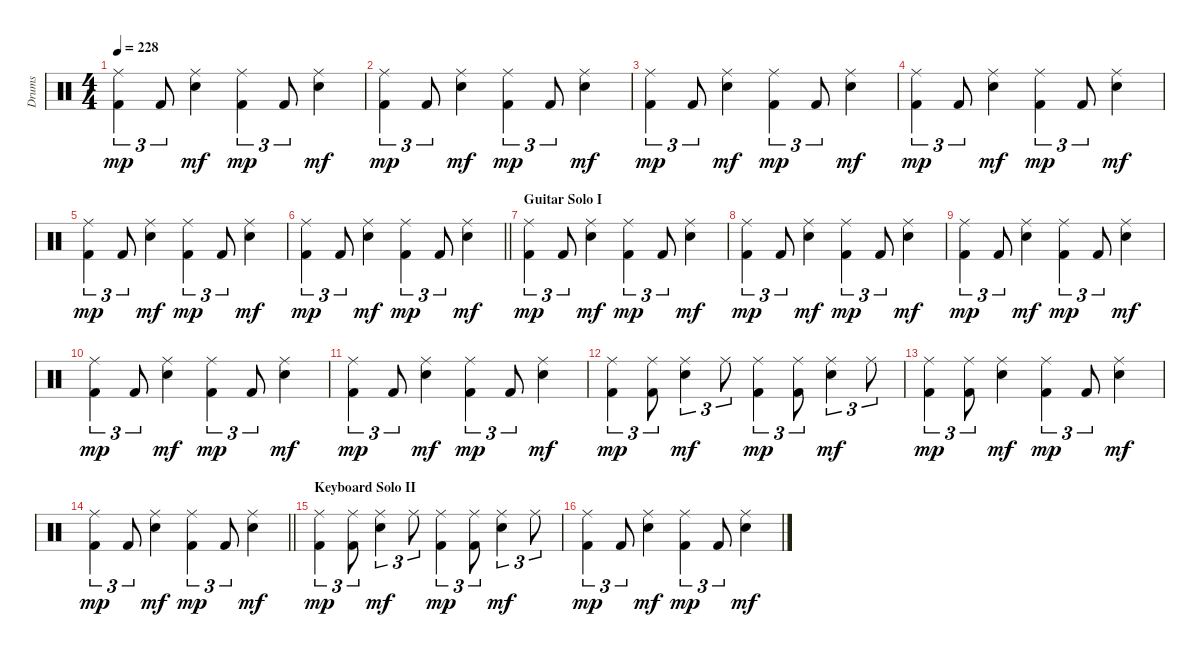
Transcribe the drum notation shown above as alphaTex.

\track ("Drums" "Drums") {instrument percussion}
\staff {score}
\articulation defaults
\ts (4 4)
\tempo 228
\clef neutral
\ks c
("Ride (middle)" "Kick (hit) 2").4{tu (3 2) dy mp} "Kick (hit) 2".8{tu (3 2)} ("Ride (middle)" "Electric Snare (hit)").4{dy mf} ("Ride (middle)" "Kick (hit) 2").4{tu (3 2) dy mp} "Kick (hit) 2".8{tu (3 2)} ("Ride (middle)" "Electric Snare (hit)").4{dy mf} |
("Ride (middle)" "Kick (hit) 2").4{tu (3 2) dy mp} "Kick (hit) 2".8{tu (3 2)} ("Ride (middle)" "Electric Snare (hit)").4{dy mf} ("Ride (middle)" "Kick (hit) 2").4{tu (3 2) dy mp} "Kick (hit) 2".8{tu (3 2)} ("Ride (middle)" "Electric Snare (hit)").4{dy mf} |
("Ride (middle)" "Kick (hit) 2").4{tu (3 2) dy mp} "Kick (hit) 2".8{tu (3 2)} ("Ride (middle)" "Electric Snare (hit)").4{dy mf} ("Ride (middle)" "Kick (hit) 2").4{tu (3 2) dy mp} "Kick (hit) 2".8{tu (3 2)} ("Ride (middle)" "Electric Snare (hit)").4{dy mf} |
("Ride (middle)" "Kick (hit) 2").4{tu (3 2) dy mp} "Kick (hit) 2".8{tu (3 2)} ("Ride (middle)" "Electric Snare (hit)").4{dy mf} ("Ride (middle)" "Kick (hit) 2").4{tu (3 2) dy mp} "Kick (hit) 2".8{tu (3 2)} ("Ride (middle)" "Electric Snare (hit)").4{dy mf} |
("Ride (middle)" "Kick (hit) 2").4{tu (3 2) dy mp} "Kick (hit) 2".8{tu (3 2)} ("Ride (middle)" "Electric Snare (hit)").4{dy mf} ("Ride (middle)" "Kick (hit) 2").4{tu (3 2) dy mp} "Kick (hit) 2".8{tu (3 2)} ("Ride (middle)" "Electric Snare (hit)").4{dy mf} |
\barLineRight lightlight
("Ride (middle)" "Kick (hit) 2").4{tu (3 2) dy mp} "Kick (hit) 2".8{tu (3 2)} ("Ride (middle)" "Electric Snare (hit)").4{dy mf} ("Ride (middle)" "Kick (hit) 2").4{tu (3 2) dy mp} "Kick (hit) 2".8{tu (3 2)} ("Ride (middle)" "Electric Snare (hit)").4{dy mf} |
\section ("" "Guitar Solo I")
("Ride (middle)" "Kick (hit) 2").4{tu (3 2) dy mp} "Kick (hit) 2".8{tu (3 2)} ("Ride (middle)" "Electric Snare (hit)").4{dy mf} ("Ride (middle)" "Kick (hit) 2").4{tu (3 2) dy mp} "Kick (hit) 2".8{tu (3 2)} ("Ride (middle)" "Electric Snare (hit)").4{dy mf} |
("Ride (middle)" "Kick (hit) 2").4{tu (3 2) dy mp} "Kick (hit) 2".8{tu (3 2)} ("Ride (middle)" "Electric Snare (hit)").4{dy mf} ("Ride (middle)" "Kick (hit) 2").4{tu (3 2) dy mp} "Kick (hit) 2".8{tu (3 2)} ("Ride (middle)" "Electric Snare (hit)").4{dy mf} |
("Ride (middle)" "Kick (hit) 2").4{tu (3 2) dy mp} "Kick (hit) 2".8{tu (3 2)} ("Ride (middle)" "Electric Snare (hit)").4{dy mf} ("Ride (middle)" "Kick (hit) 2").4{tu (3 2) dy mp} "Kick (hit) 2".8{tu (3 2)} ("Ride (middle)" "Electric Snare (hit)").4{dy mf} |
("Ride (middle)" "Kick (hit) 2").4{tu (3 2) dy mp} "Kick (hit) 2".8{tu (3 2)} ("Ride (middle)" "Electric Snare (hit)").4{dy mf} ("Ride (middle)" "Kick (hit) 2").4{tu (3 2) dy mp} "Kick (hit) 2".8{tu (3 2)} ("Ride (middle)" "Electric Snare (hit)").4{dy mf} |
("Ride (middle)" "Kick (hit) 2").4{tu (3 2) dy mp} "Kick (hit) 2".8{tu (3 2)} ("Ride (middle)" "Electric Snare (hit)").4{dy mf} ("Ride (middle)" "Kick (hit) 2").4{tu (3 2) dy mp} "Kick (hit) 2".8{tu (3 2)} ("Ride (middle)" "Electric Snare (hit)").4{dy mf} |
("Ride (middle)" "Kick (hit) 2").4{tu (3 2) dy mp} ("Ride (middle)" "Kick (hit) 2").8{tu (3 2)} ("Ride (middle)" "Electric Snare (hit)").4{tu (3 2) dy mf} "Ride (middle)".8{tu (3 2)} ("Ride (middle)" "Kick (hit) 2").4{tu (3 2) dy mp} ("Ride (middle)" "Kick (hit) 2").8{tu (3 2)} ("Ride (middle)" "Electric Snare (hit)").4{tu (3 2) dy mf} "Ride (middle)".8{tu (3 2)} |
("Ride (middle)" "Kick (hit) 2").4{tu (3 2) dy mp} ("Ride (middle)" "Kick (hit) 2").8{tu (3 2)} ("Ride (middle)" "Electric Snare (hit)").4{dy mf} ("Ride (middle)" "Kick (hit) 2").4{tu (3 2) dy mp} "Kick (hit) 2".8{tu (3 2)} ("Ride (middle)" "Electric Snare (hit)").4{dy mf} |
\barLineRight lightlight
("Ride (middle)" "Kick (hit) 2").4{tu (3 2) dy mp} "Kick (hit) 2".8{tu (3 2)} ("Ride (middle)" "Electric Snare (hit)").4{dy mf} ("Ride (middle)" "Kick (hit) 2").4{tu (3 2) dy mp} "Kick (hit) 2".8{tu (3 2)} ("Ride (middle)" "Electric Snare (hit)").4{dy mf} |
\section ("" "Keyboard Solo II")
("Ride (middle)" "Kick (hit) 2").4{tu (3 2) dy mp} ("Ride (middle)" "Kick (hit) 2").8{tu (3 2)} ("Ride (middle)" "Electric Snare (hit)").4{tu (3 2) dy mf} "Ride (middle)".8{tu (3 2)} ("Ride (middle)" "Kick (hit) 2").4{tu (3 2) dy mp} ("Ride (middle)" "Kick (hit) 2").8{tu (3 2)} ("Ride (middle)" "Electric Snare (hit)").4{tu (3 2) dy mf} "Ride (middle)".8{tu (3 2)} |
("Ride (middle)" "Kick (hit) 2").4{tu (3 2) dy mp} "Kick (hit) 2".8{tu (3 2)} ("Ride (middle)" "Electric Snare (hit)").4{dy mf} ("Ride (middle)" "Kick (hit) 2").4{tu (3 2) dy mp} "Kick (hit) 2".8{tu (3 2)} ("Ride (middle)" "Electric Snare (hit)").4{dy mf}
